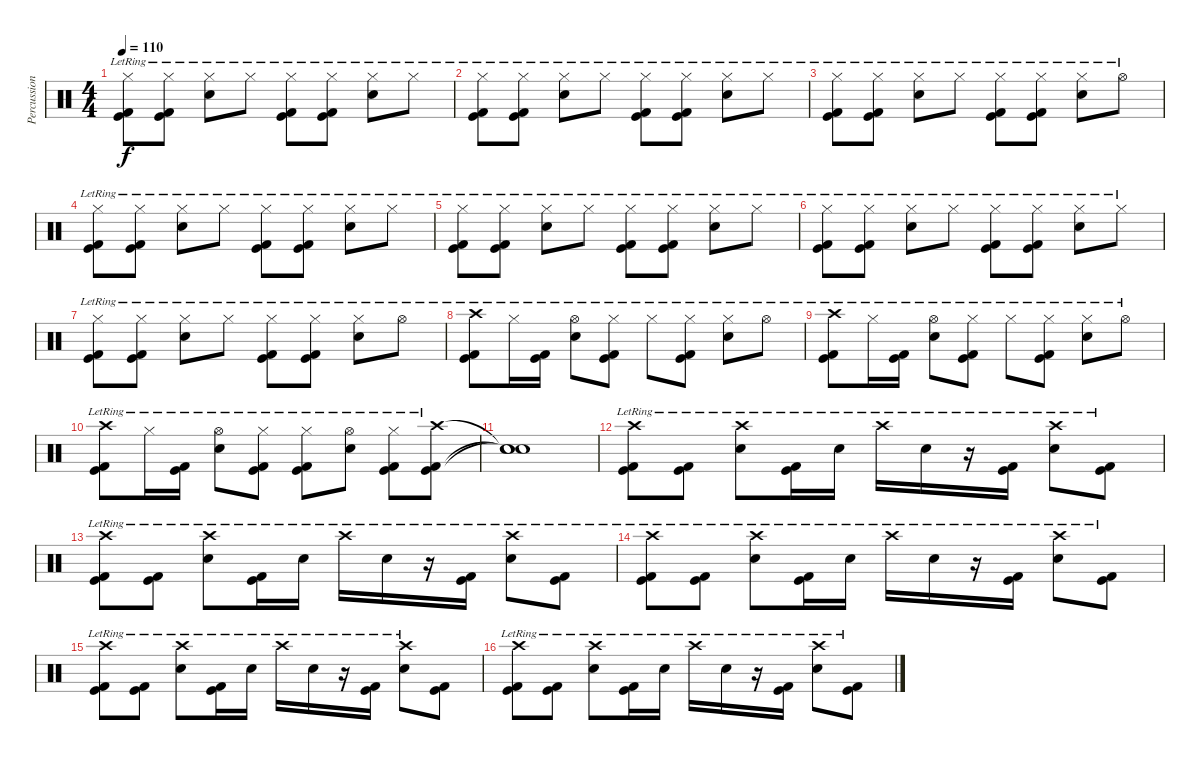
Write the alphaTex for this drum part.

\track ("Percussion" "Percussion") {instrument percussion}
\staff {score}
\articulation defaults
\ts (4 4)
\tempo 110
\clef neutral
\ks c
("Hi-Hat (closed)"{lr} "Kick (hit) 2"{lr} "Kick (hit)"{lr}).8{dy f} ("Hi-Hat (closed)"{lr} "Kick (hit) 2"{lr} "Kick (hit)"{lr}).8 ("Hi-Hat (closed)"{lr} "Snare (hit) 2"{lr}).8 "Hi-Hat (closed)"{lr}.8 ("Hi-Hat (closed)"{lr} "Kick (hit) 2"{lr} "Kick (hit)"{lr}).8 ("Hi-Hat (closed)"{lr} "Kick (hit) 2"{lr} "Kick (hit)"{lr}).8 ("Hi-Hat (closed)"{lr} "Snare (hit) 2"{lr}).8 "Hi-Hat (closed)"{lr}.8 |
("Hi-Hat (closed)"{lr} "Kick (hit) 2"{lr} "Kick (hit)"{lr}).8 ("Hi-Hat (closed)"{lr} "Kick (hit) 2"{lr} "Kick (hit)"{lr}).8 ("Hi-Hat (closed)"{lr} "Snare (hit) 2"{lr}).8 "Hi-Hat (closed)"{lr}.8 ("Hi-Hat (closed)"{lr} "Kick (hit) 2"{lr} "Kick (hit)"{lr}).8 ("Hi-Hat (closed)"{lr} "Kick (hit) 2"{lr} "Kick (hit)"{lr}).8 ("Hi-Hat (closed)"{lr} "Snare (hit) 2"{lr}).8 "Hi-Hat (closed)"{lr}.8 |
("Hi-Hat (closed)"{lr} "Kick (hit) 2"{lr} "Kick (hit)"{lr}).8 ("Hi-Hat (closed)"{lr} "Kick (hit) 2"{lr} "Kick (hit)"{lr}).8 ("Hi-Hat (closed)"{lr} "Snare (hit) 2"{lr}).8 "Hi-Hat (closed)"{lr}.8 ("Hi-Hat (closed)"{lr} "Kick (hit) 2"{lr} "Kick (hit)"{lr}).8 ("Hi-Hat (closed)"{lr} "Kick (hit) 2"{lr} "Kick (hit)"{lr}).8 ("Hi-Hat (closed)"{lr} "Snare (hit) 2"{lr}).8 "Hi-Hat (open)"{lr}.8 |
("Hi-Hat (closed)"{lr} "Kick (hit) 2"{lr} "Kick (hit)"{lr}).8 ("Hi-Hat (closed)"{lr} "Kick (hit) 2"{lr} "Kick (hit)"{lr}).8 ("Hi-Hat (closed)"{lr} "Snare (hit) 2"{lr}).8 "Hi-Hat (closed)"{lr}.8 ("Hi-Hat (closed)"{lr} "Kick (hit) 2"{lr} "Kick (hit)"{lr}).8 ("Hi-Hat (closed)"{lr} "Kick (hit) 2"{lr} "Kick (hit)"{lr}).8 ("Hi-Hat (closed)"{lr} "Snare (hit) 2"{lr}).8 "Hi-Hat (closed)"{lr}.8 |
("Hi-Hat (closed)"{lr} "Kick (hit) 2"{lr} "Kick (hit)"{lr}).8 ("Hi-Hat (closed)"{lr} "Kick (hit) 2"{lr} "Kick (hit)"{lr}).8 ("Hi-Hat (closed)"{lr} "Snare (hit) 2"{lr}).8 "Hi-Hat (closed)"{lr}.8 ("Hi-Hat (closed)"{lr} "Kick (hit) 2"{lr} "Kick (hit)"{lr}).8 ("Hi-Hat (closed)"{lr} "Kick (hit) 2"{lr} "Kick (hit)"{lr}).8 ("Hi-Hat (closed)"{lr} "Snare (hit) 2"{lr}).8 "Hi-Hat (closed)"{lr}.8 |
("Hi-Hat (closed)"{lr} "Kick (hit) 2"{lr} "Kick (hit)"{lr}).8 ("Hi-Hat (closed)"{lr} "Kick (hit) 2"{lr} "Kick (hit)"{lr}).8 ("Hi-Hat (closed)"{lr} "Snare (hit) 2"{lr}).8 "Hi-Hat (closed)"{lr}.8 ("Hi-Hat (closed)"{lr} "Kick (hit) 2"{lr} "Kick (hit)"{lr}).8 ("Hi-Hat (closed)"{lr} "Kick (hit) 2"{lr} "Kick (hit)"{lr}).8 ("Hi-Hat (closed)"{lr} "Snare (hit) 2"{lr}).8 "Hi-Hat (closed)"{lr}.8 |
("Hi-Hat (closed)"{lr} "Kick (hit) 2"{lr} "Kick (hit)"{lr}).8 ("Hi-Hat (closed)"{lr} "Kick (hit) 2"{lr} "Kick (hit)"{lr}).8 ("Hi-Hat (closed)"{lr} "Snare (hit) 2"{lr}).8 "Hi-Hat (closed)"{lr}.8 ("Hi-Hat (closed)"{lr} "Kick (hit) 2"{lr} "Kick (hit)"{lr}).8 ("Hi-Hat (closed)"{lr} "Kick (hit) 2"{lr} "Kick (hit)"{lr}).8 ("Hi-Hat (closed)"{lr} "Snare (hit) 2"{lr}).8 "Hi-Hat (open)"{lr}.8 |
("Crash high (hit)"{lr} "Kick (hit) 2"{lr} "Kick (hit)"{lr}).8 "Hi-Hat (closed)"{lr}.16 ("Kick (hit) 2"{lr} "Kick (hit)"{lr}).16 ("Hi-Hat (open)"{lr} "Electric Snare (hit)"{lr}).8 ("Hi-Hat (closed)"{lr} "Kick (hit) 2"{lr} "Kick (hit)"{lr}).8 "Hi-Hat (closed)"{lr}.8 ("Hi-Hat (closed)"{lr} "Kick (hit) 2"{lr} "Kick (hit)"{lr}).8 ("Hi-Hat (closed)"{lr} "Electric Snare (hit)"{lr}).8 "Hi-Hat (open)"{lr}.8 |
("Crash high (hit)"{lr} "Kick (hit) 2"{lr} "Kick (hit)"{lr}).8 "Hi-Hat (closed)"{lr}.16 ("Kick (hit) 2"{lr} "Kick (hit)"{lr}).16 ("Hi-Hat (open)"{lr} "Electric Snare (hit)"{lr}).8 ("Hi-Hat (closed)"{lr} "Kick (hit) 2"{lr} "Kick (hit)"{lr}).8 "Hi-Hat (closed)"{lr}.8 ("Hi-Hat (closed)"{lr} "Kick (hit) 2"{lr} "Kick (hit)"{lr}).8 ("Hi-Hat (closed)"{lr} "Electric Snare (hit)"{lr}).8 "Hi-Hat (open)"{lr}.8 |
("Crash high (hit)"{lr} "Kick (hit) 2"{lr} "Kick (hit)"{lr}).8 "Hi-Hat (closed)"{lr}.16 ("Kick (hit) 2"{lr} "Kick (hit)"{lr}).16 ("Hi-Hat (open)"{lr} "Electric Snare (hit)"{lr}).8 ("Hi-Hat (closed)"{lr} "Kick (hit) 2"{lr} "Kick (hit)"{lr}).8 ("Hi-Hat (closed)"{lr} "Kick (hit) 2"{lr} "Kick (hit)"{lr}).8 ("Hi-Hat (open)"{lr} "Electric Snare (hit)"{lr}).8 ("Hi-Hat (closed)"{lr} "Kick (hit) 2"{lr} "Kick (hit)"{lr}).8 ("Crash high (hit)"{lr} "Kick (hit) 2"{lr} "Kick (hit)"{lr}).8 |
("Snare (hit)"{t} "Snare (hit)"{t} "Snare (hit)"{t}).1 |
("Crash high (hit)"{lr} "Kick (hit) 2"{lr} "Kick (hit)"{lr}).8 ("Kick (hit) 2"{lr} "Kick (hit)"{lr}).8 ("Crash high (hit)"{lr} "Snare (hit) 2"{lr}).8 ("Kick (hit) 2"{lr} "Kick (hit)"{lr}).16 "Snare (hit) 2"{lr}.16 "Crash high (hit)"{lr}.16 "Snare (hit) 2"{lr}.16 r.16 ("Kick (hit) 2"{lr} "Kick (hit)"{lr}).16 ("Crash high (hit)"{lr} "Snare (hit) 2"{lr}).8 ("Kick (hit) 2"{lr} "Kick (hit)"{lr}).8 |
("Crash high (hit)"{lr} "Kick (hit) 2"{lr} "Kick (hit)"{lr}).8 ("Kick (hit) 2"{lr} "Kick (hit)"{lr}).8 ("Crash high (hit)"{lr} "Snare (hit) 2"{lr}).8 ("Kick (hit) 2"{lr} "Kick (hit)"{lr}).16 "Snare (hit) 2"{lr}.16 "Crash high (hit)"{lr}.16 "Snare (hit) 2"{lr}.16 r.16 ("Kick (hit) 2"{lr} "Kick (hit)"{lr}).16 ("Crash high (hit)"{lr} "Snare (hit) 2"{lr}).8 ("Kick (hit) 2"{lr} "Kick (hit)"{lr}).8 |
("Crash high (hit)"{lr} "Kick (hit) 2"{lr} "Kick (hit)"{lr}).8 ("Kick (hit) 2"{lr} "Kick (hit)"{lr}).8 ("Crash high (hit)"{lr} "Snare (hit) 2"{lr}).8 ("Kick (hit) 2"{lr} "Kick (hit)"{lr}).16 "Snare (hit) 2"{lr}.16 "Crash high (hit)"{lr}.16 "Snare (hit) 2"{lr}.16 r.16 ("Kick (hit) 2"{lr} "Kick (hit)"{lr}).16 ("Crash high (hit)"{lr} "Snare (hit) 2"{lr}).8 ("Kick (hit) 2"{lr} "Kick (hit)"{lr}).8 |
("Crash high (hit)"{lr} "Kick (hit) 2"{lr} "Kick (hit)"{lr}).8 ("Kick (hit) 2"{lr} "Kick (hit)"{lr}).8 ("Crash high (hit)"{lr} "Snare (hit) 2"{lr}).8 ("Kick (hit) 2"{lr} "Kick (hit)"{lr}).16 "Snare (hit) 2"{lr}.16 "Crash high (hit)"{lr}.16 "Snare (hit) 2"{lr}.16 r.16 ("Kick (hit) 2"{lr} "Kick (hit)"{lr}).16 ("Crash high (hit)"{lr} "Snare (hit) 2"{lr}).8 ("Kick (hit) 2" "Kick (hit)").8 |
("Crash high (hit)"{lr} "Kick (hit) 2"{lr} "Kick (hit)"{lr}).8 ("Kick (hit) 2"{lr} "Kick (hit)"{lr}).8 ("Crash high (hit)"{lr} "Snare (hit) 2"{lr}).8 ("Kick (hit) 2"{lr} "Kick (hit)"{lr}).16 "Snare (hit) 2"{lr}.16 "Crash high (hit)"{lr}.16 "Snare (hit) 2"{lr}.16 r.16 ("Kick (hit) 2"{lr} "Kick (hit)"{lr}).16 ("Crash high (hit)"{lr} "Snare (hit) 2"{lr}).8 ("Kick (hit) 2"{lr} "Kick (hit)"{lr}).8
